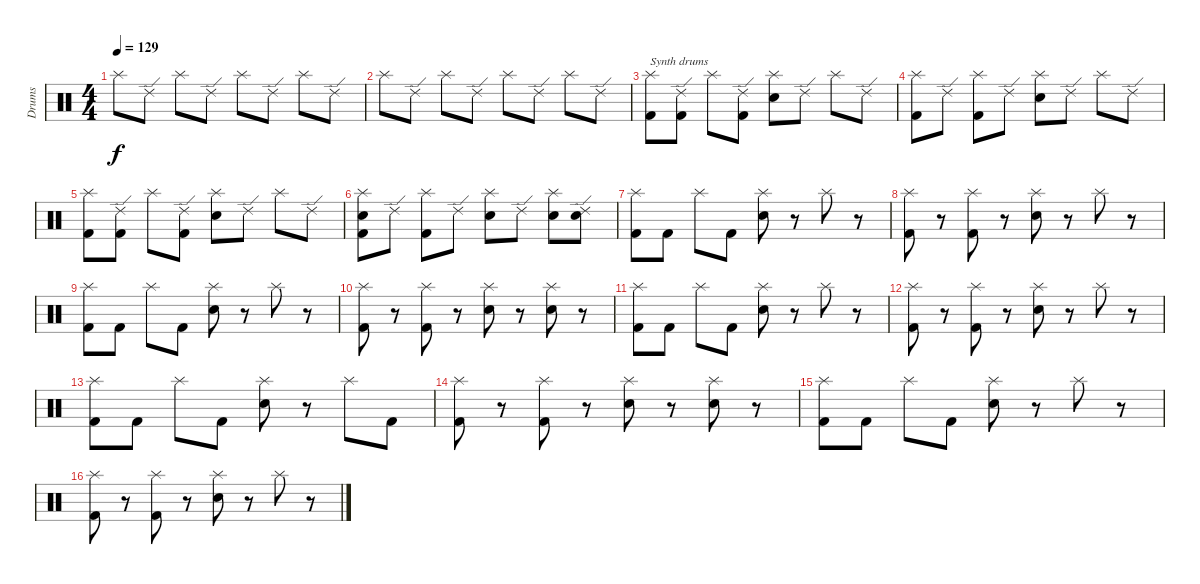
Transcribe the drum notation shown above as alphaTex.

\track ("Drums" "Drums") {instrument percussion}
\staff {score}
\articulation defaults
\ts (4 4)
\tempo 129
\clef neutral
\ks c "Splash (hit)".8{dy f} "Ride (edge) 2".8 "Splash (hit)".8 "Ride (edge) 2".8 "Splash (hit)".8 "Ride (edge) 2".8 "Splash (hit)".8 "Ride (edge) 2".8
|
"Splash (hit)".8 "Ride (edge) 2".8 "Splash (hit)".8 "Ride (edge) 2".8 "Splash (hit)".8 "Ride (edge) 2".8 "Splash (hit)".8 "Ride (edge) 2".8 |
("Splash (hit)" "Kick (hit) 2").8{txt "Synth drums"} ("Ride (edge) 2" "Kick (hit) 2").8 "Splash (hit)".8 ("Ride (edge) 2" "Kick (hit) 2").8 ("Snare (hit) 2" "Splash (hit)").8 "Ride (edge) 2".8 "Splash (hit)".8 "Ride (edge) 2".8 |
("Splash (hit)" "Kick (hit) 2").8 "Ride (edge) 2".8 ("Splash (hit)" "Kick (hit) 2").8 "Ride (edge) 2".8 ("Snare (hit) 2" "Splash (hit)").8 "Ride (edge) 2".8 "Splash (hit)".8 "Ride (edge) 2".8 |
("Splash (hit)" "Kick (hit) 2").8 ("Ride (edge) 2" "Kick (hit) 2").8 "Splash (hit)".8 ("Ride (edge) 2" "Kick (hit) 2").8 ("Snare (hit) 2" "Splash (hit)").8 "Ride (edge) 2".8 "Splash (hit)".8 "Ride (edge) 2".8 |
("Snare (hit) 2" "Splash (hit)" "Kick (hit) 2").8 "Ride (edge) 2".8 ("Splash (hit)" "Kick (hit) 2").8 "Ride (edge) 2".8 ("Snare (hit) 2" "Splash (hit)").8 "Ride (edge) 2".8 ("Snare (hit) 2" "Splash (hit)").8 ("Snare (hit) 2" "Ride (edge) 2").8 |
("Splash (hit)" "Kick (hit) 2").8 "Kick (hit) 2".8 "Splash (hit)".8 "Kick (hit) 2".8 ("Snare (hit) 2" "Splash (hit)").8 r.8 "Splash (hit)".8 r.8 |
("Splash (hit)" "Kick (hit) 2").8 r.8 ("Splash (hit)" "Kick (hit) 2").8 r.8 ("Snare (hit) 2" "Splash (hit)").8 r.8 "Splash (hit)".8 r.8 |
("Splash (hit)" "Kick (hit) 2").8 "Kick (hit) 2".8 "Splash (hit)".8 "Kick (hit) 2".8 ("Snare (hit) 2" "Splash (hit)").8 r.8 "Splash (hit)".8 r.8 |
("Splash (hit)" "Kick (hit) 2").8 r.8 ("Splash (hit)" "Kick (hit) 2").8 r.8 ("Snare (hit) 2" "Splash (hit)").8 r.8 ("Snare (hit) 2" "Splash (hit)").8 r.8 |
("Splash (hit)" "Kick (hit) 2").8 "Kick (hit) 2".8 "Splash (hit)".8 "Kick (hit) 2".8 ("Snare (hit) 2" "Splash (hit)").8 r.8 "Splash (hit)".8 r.8 |
("Splash (hit)" "Kick (hit) 2").8 r.8 ("Splash (hit)" "Kick (hit) 2").8 r.8 ("Snare (hit) 2" "Splash (hit)").8 r.8 "Splash (hit)".8 r.8 |
("Splash (hit)" "Kick (hit) 2").8 "Kick (hit) 2".8 "Splash (hit)".8 "Kick (hit) 2".8 ("Snare (hit) 2" "Splash (hit)").8 r.8 "Splash (hit)".8 "Kick (hit) 2".8 |
("Splash (hit)" "Kick (hit) 2").8 r.8 ("Splash (hit)" "Kick (hit) 2").8 r.8 ("Snare (hit) 2" "Splash (hit)").8 r.8 ("Snare (hit) 2" "Splash (hit)").8 r.8 |
("Splash (hit)" "Kick (hit) 2").8 "Kick (hit) 2".8 "Splash (hit)".8 "Kick (hit) 2".8 ("Snare (hit) 2" "Splash (hit)").8 r.8 "Splash (hit)".8 r.8 |
("Splash (hit)" "Kick (hit) 2").8 r.8 ("Splash (hit)" "Kick (hit) 2").8 r.8 ("Snare (hit) 2" "Splash (hit)").8 r.8 "Splash (hit)".8 r.8
